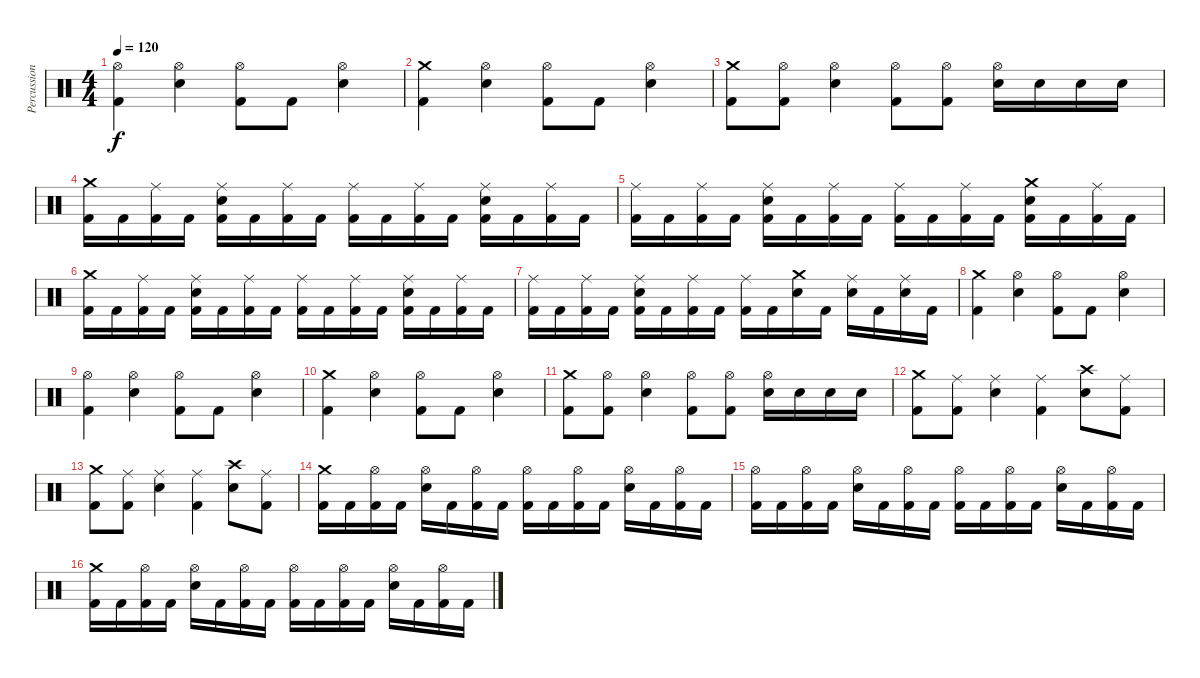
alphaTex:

\track ("Percussion" "Percussion") {instrument percussion}
\staff {score}
\articulation defaults
\ts (4 4)
\tempo 120
\clef neutral
\ks c
("Hi-Hat (open)" "Kick (hit) 2").4{dy f} ("Hi-Hat (open)" "Snare (hit) 2").4 ("Hi-Hat (open)" "Kick (hit) 2").8 "Kick (hit) 2".8 ("Hi-Hat (open)" "Snare (hit) 2").4 |
("Crash medium (hit)" "Kick (hit) 2").4 ("Hi-Hat (open)" "Snare (hit) 2").4 ("Hi-Hat (open)" "Kick (hit) 2").8 "Kick (hit) 2".8 ("Hi-Hat (open)" "Snare (hit) 2").4 |
("Crash medium (hit)" "Kick (hit) 2").8 ("Hi-Hat (open)" "Kick (hit) 2").8 ("Hi-Hat (open)" "Snare (hit) 2").4 ("Hi-Hat (open)" "Kick (hit) 2").8 ("Hi-Hat (open)" "Kick (hit) 2").8 ("Hi-Hat (open)" "Snare (hit) 2").16 "Snare (hit) 2".16 "Snare (hit) 2".16 "Snare (hit) 2".16 |
("Crash medium (hit)" "Kick (hit) 2").16 "Kick (hit) 2".16 ("Ride (middle)" "Kick (hit) 2").16 "Kick (hit) 2".16 ("Ride (middle)" "Snare (hit) 2" "Kick (hit) 2").16 "Kick (hit) 2".16 ("Ride (middle)" "Kick (hit) 2").16 "Kick (hit) 2".16 ("Ride (middle)" "Kick (hit) 2").16 "Kick (hit) 2".16 ("Ride (middle)" "Kick (hit) 2").16 "Kick (hit) 2".16 ("Ride (middle)" "Snare (hit) 2" "Kick (hit) 2").16 "Kick (hit) 2".16 ("Ride (middle)" "Kick (hit) 2").16 "Kick (hit) 2".16 |
("Ride (middle)" "Kick (hit) 2").16 "Kick (hit) 2".16 ("Ride (middle)" "Kick (hit) 2").16 "Kick (hit) 2".16 ("Ride (middle)" "Snare (hit) 2" "Kick (hit) 2").16 "Kick (hit) 2".16 ("Ride (middle)" "Kick (hit) 2").16 "Kick (hit) 2".16 ("Ride (middle)" "Kick (hit) 2").16 "Kick (hit) 2".16 ("Ride (middle)" "Kick (hit) 2").16 "Kick (hit) 2".16 ("Crash medium (hit)" "Snare (hit) 2" "Kick (hit) 2").16 "Kick (hit) 2".16 ("Ride (middle)" "Kick (hit) 2").16 "Kick (hit) 2".16 |
("Crash medium (hit)" "Kick (hit) 2").16 "Kick (hit) 2".16 ("Ride (middle)" "Kick (hit) 2").16 "Kick (hit) 2".16 ("Ride (middle)" "Snare (hit) 2" "Kick (hit) 2").16 "Kick (hit) 2".16 ("Ride (middle)" "Kick (hit) 2").16 "Kick (hit) 2".16 ("Ride (middle)" "Kick (hit) 2").16 "Kick (hit) 2".16 ("Ride (middle)" "Kick (hit) 2").16 "Kick (hit) 2".16 ("Ride (middle)" "Snare (hit) 2" "Kick (hit) 2").16 "Kick (hit) 2".16 ("Ride (middle)" "Kick (hit) 2").16 "Kick (hit) 2".16 |
("Ride (middle)" "Kick (hit) 2").16 "Kick (hit) 2".16 ("Ride (middle)" "Kick (hit) 2").16 "Kick (hit) 2".16 ("Ride (middle)" "Snare (hit) 2" "Kick (hit) 2").16 "Kick (hit) 2".16 ("Ride (middle)" "Kick (hit) 2").16 "Kick (hit) 2".16 ("Ride (middle)" "Kick (hit) 2").16 "Kick (hit) 2".16 ("Crash medium (hit)" "Snare (hit) 2").16 "Kick (hit) 2".16 ("Ride (middle)" "Snare (hit) 2").16 "Kick (hit) 2".16 ("Ride (middle)" "Snare (hit) 2").16 "Kick (hit) 2".16 |
("Crash medium (hit)" "Kick (hit) 2").4 ("Hi-Hat (open)" "Snare (hit) 2").4 ("Hi-Hat (open)" "Kick (hit) 2").8 "Kick (hit) 2".8 ("Hi-Hat (open)" "Snare (hit) 2").4 |
("Hi-Hat (open)" "Kick (hit) 2").4 ("Hi-Hat (open)" "Snare (hit) 2").4 ("Hi-Hat (open)" "Kick (hit) 2").8 "Kick (hit) 2".8 ("Hi-Hat (open)" "Snare (hit) 2").4 |
("Crash medium (hit)" "Kick (hit) 2").4 ("Hi-Hat (open)" "Snare (hit) 2").4 ("Hi-Hat (open)" "Kick (hit) 2").8 "Kick (hit) 2".8 ("Hi-Hat (open)" "Snare (hit) 2").4 |
("Crash medium (hit)" "Kick (hit) 2").8 ("Hi-Hat (open)" "Kick (hit) 2").8 ("Hi-Hat (open)" "Snare (hit) 2").4 ("Hi-Hat (open)" "Kick (hit) 2").8 ("Hi-Hat (open)" "Kick (hit) 2").8 ("Hi-Hat (open)" "Snare (hit) 2").16 "Snare (hit) 2".16 "Snare (hit) 2".16 "Snare (hit) 2".16 |
("Crash medium (hit)" "Kick (hit) 2").8 ("Ride (middle)" "Kick (hit) 2").8 ("Ride (middle)" "Snare (hit) 2").4 ("Ride (middle)" "Kick (hit) 2").4 ("Crash high (hit)" "Snare (hit) 2").8 ("Ride (middle)" "Kick (hit) 2").8 |
("Crash medium (hit)" "Kick (hit) 2").8 ("Ride (middle)" "Kick (hit) 2").8 ("Ride (middle)" "Snare (hit) 2").4 ("Ride (middle)" "Kick (hit) 2").4 ("Crash high (hit)" "Snare (hit) 2").8 ("Ride (middle)" "Kick (hit) 2").8 |
("Crash medium (hit)" "Kick (hit) 2").16 "Kick (hit) 2".16 ("Hi-Hat (open)" "Kick (hit) 2").16 "Kick (hit) 2".16 ("Hi-Hat (open)" "Snare (hit) 2").16 "Kick (hit) 2".16 ("Hi-Hat (open)" "Kick (hit) 2").16 "Kick (hit) 2".16 ("Hi-Hat (open)" "Kick (hit) 2").16 "Kick (hit) 2".16 ("Hi-Hat (open)" "Kick (hit) 2").16 "Kick (hit) 2".16 ("Hi-Hat (open)" "Snare (hit) 2").16 "Kick (hit) 2".16 ("Hi-Hat (open)" "Kick (hit) 2").16 "Kick (hit) 2".16 |
("Hi-Hat (open)" "Kick (hit) 2").16 "Kick (hit) 2".16 ("Hi-Hat (open)" "Kick (hit) 2").16 "Kick (hit) 2".16 ("Hi-Hat (open)" "Snare (hit) 2").16 "Kick (hit) 2".16 ("Hi-Hat (open)" "Kick (hit) 2").16 "Kick (hit) 2".16 ("Hi-Hat (open)" "Kick (hit) 2").16 "Kick (hit) 2".16 ("Hi-Hat (open)" "Kick (hit) 2").16 "Kick (hit) 2".16 ("Hi-Hat (open)" "Snare (hit) 2").16 "Kick (hit) 2".16 ("Hi-Hat (open)" "Kick (hit) 2").16 "Kick (hit) 2".16 |
("Crash medium (hit)" "Kick (hit) 2").16 "Kick (hit) 2".16 ("Hi-Hat (open)" "Kick (hit) 2").16 "Kick (hit) 2".16 ("Hi-Hat (open)" "Snare (hit) 2").16 "Kick (hit) 2".16 ("Hi-Hat (open)" "Kick (hit) 2").16 "Kick (hit) 2".16 ("Hi-Hat (open)" "Kick (hit) 2").16 "Kick (hit) 2".16 ("Hi-Hat (open)" "Kick (hit) 2").16 "Kick (hit) 2".16 ("Hi-Hat (open)" "Snare (hit) 2").16 "Kick (hit) 2".16 ("Hi-Hat (open)" "Kick (hit) 2").16 "Kick (hit) 2".16
